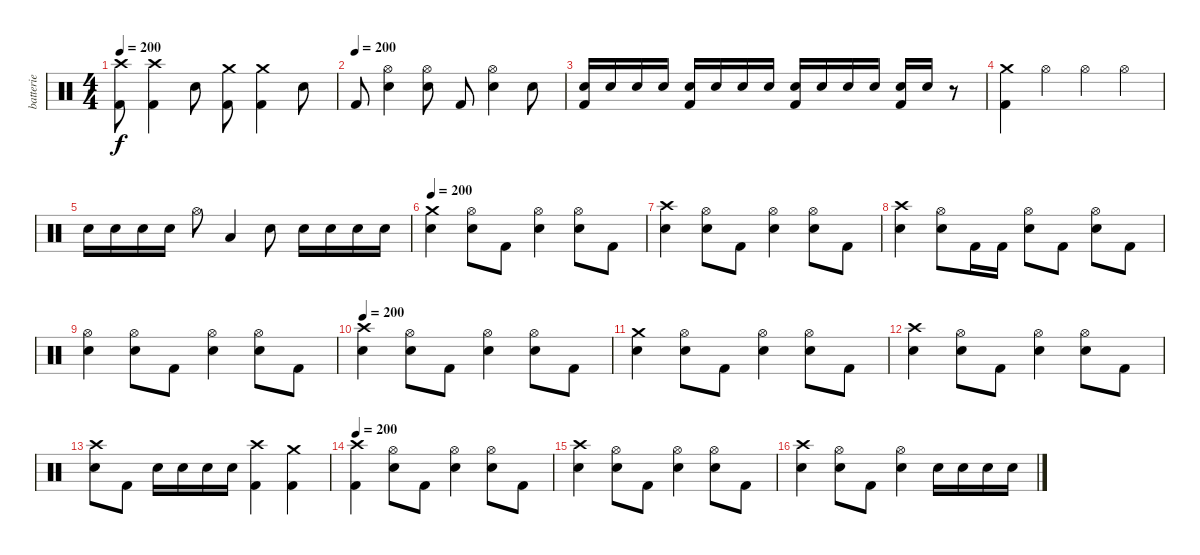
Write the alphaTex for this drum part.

\track ("batterie" "batterie") {instrument percussion}
\staff {score}
\articulation defaults
\ts (4 4)
\tempo 200
\clef neutral
\ks c
("Crash high (hit)" "Kick (hit) 2").8{dy f} ("Crash high (hit)" "Kick (hit) 2").4 "Electric Snare (hit)".8 ("Crash medium (hit)" "Kick (hit) 2").8 ("Crash medium (hit)" "Kick (hit) 2").4 "Electric Snare (hit)".8 |
\tempo (200)
"Kick (hit) 2".8 ("Hi-Hat (open)" "Electric Snare (hit)").4 ("Hi-Hat (open)" "Electric Snare (hit)").8 "Kick (hit) 2".8 ("Hi-Hat (open)" "Electric Snare (hit)").4 "Electric Snare (hit)".8 |
("Electric Snare (hit)" "Kick (hit) 2").16 "Electric Snare (hit)".16 "Electric Snare (hit)".16 "Electric Snare (hit)".16 ("Electric Snare (hit)" "Kick (hit) 2").16 "Electric Snare (hit)".16 "Electric Snare (hit)".16 "Electric Snare (hit)".16 ("Electric Snare (hit)" "Kick (hit) 2").16 "Electric Snare (hit)".16 "Electric Snare (hit)".16 "Electric Snare (hit)".16 ("Electric Snare (hit)" "Kick (hit) 2").16 "Electric Snare (hit)".16 r.8 |
("Crash medium (hit)" "Kick (hit) 2").4 "Hi-Hat (open)".4 "Hi-Hat (open)".4 "Hi-Hat (open)".4 |
"Electric Snare (hit)".16 "Electric Snare (hit)".16 "Electric Snare (hit)".16 "Electric Snare (hit)".16 "Hi-Hat (open)".8 "Low Tom (hit)".4 "Electric Snare (hit)".8 "Electric Snare (hit)".16 "Electric Snare (hit)".16 "Electric Snare (hit)".16 "Electric Snare (hit)".16 |
\tempo 200
("Crash medium (hit)" "Electric Snare (hit)").4 ("Hi-Hat (open)" "Electric Snare (hit)").8 "Kick (hit) 2".8 ("Hi-Hat (open)" "Electric Snare (hit)").4 ("Hi-Hat (open)" "Electric Snare (hit)").8 "Kick (hit) 2".8 |
("Crash high (hit)" "Electric Snare (hit)").4 ("Hi-Hat (open)" "Electric Snare (hit)").8 "Kick (hit) 2".8 ("Hi-Hat (open)" "Electric Snare (hit)").4 ("Hi-Hat (open)" "Electric Snare (hit)").8 "Kick (hit) 2".8 |
("Crash high (hit)" "Electric Snare (hit)").4 ("Hi-Hat (open)" "Electric Snare (hit)").8 "Kick (hit) 2".16 "Kick (hit) 2".16 ("Hi-Hat (open)" "Electric Snare (hit)").8 "Kick (hit) 2".8 ("Hi-Hat (open)" "Electric Snare (hit)").8 "Kick (hit) 2".8 |
("Electric Snare (hit)" "Hi-Hat (open)").4 ("Hi-Hat (open)" "Electric Snare (hit)").8 "Kick (hit) 2".8 ("Hi-Hat (open)" "Electric Snare (hit)").4 ("Hi-Hat (open)" "Electric Snare (hit)").8 "Kick (hit) 2".8 |
\tempo 200
("Crash high (hit)" "Electric Snare (hit)").4 ("Hi-Hat (open)" "Electric Snare (hit)").8 "Kick (hit) 2".8 ("Hi-Hat (open)" "Electric Snare (hit)").4 ("Hi-Hat (open)" "Electric Snare (hit)").8 "Kick (hit) 2".8 |
("Crash medium (hit)" "Electric Snare (hit)").4 ("Hi-Hat (open)" "Electric Snare (hit)").8 "Kick (hit) 2".8 ("Hi-Hat (open)" "Electric Snare (hit)").4 ("Hi-Hat (open)" "Electric Snare (hit)").8 "Kick (hit) 2".8 |
("Crash high (hit)" "Electric Snare (hit)").4 ("Hi-Hat (open)" "Electric Snare (hit)").8 "Kick (hit) 2".8 ("Hi-Hat (open)" "Electric Snare (hit)").4 ("Hi-Hat (open)" "Electric Snare (hit)").8 "Kick (hit) 2".8 |
("Crash high (hit)" "Electric Snare (hit)").8 "Kick (hit) 2".8 "Electric Snare (hit)".16 "Electric Snare (hit)".16 "Electric Snare (hit)".16 "Electric Snare (hit)".16 ("Crash high (hit)" "Kick (hit) 2").4 ("Crash medium (hit)" "Kick (hit) 2").4 |
\tempo 200
("Crash high (hit)" "Kick (hit) 2").4 ("Hi-Hat (open)" "Electric Snare (hit)").8 "Kick (hit) 2".8 ("Hi-Hat (open)" "Electric Snare (hit)").4 ("Hi-Hat (open)" "Electric Snare (hit)").8 "Kick (hit) 2".8 |
("Crash high (hit)" "Electric Snare (hit)").4 ("Hi-Hat (open)" "Electric Snare (hit)").8 "Kick (hit) 2".8 ("Hi-Hat (open)" "Electric Snare (hit)").4 ("Hi-Hat (open)" "Electric Snare (hit)").8 "Kick (hit) 2".8 |
("Crash high (hit)" "Electric Snare (hit)").4 ("Hi-Hat (open)" "Electric Snare (hit)").8 "Kick (hit) 2".8 ("Hi-Hat (open)" "Electric Snare (hit)").4 "Electric Snare (hit)".16 "Electric Snare (hit)".16 "Electric Snare (hit)".16 "Electric Snare (hit)".16
